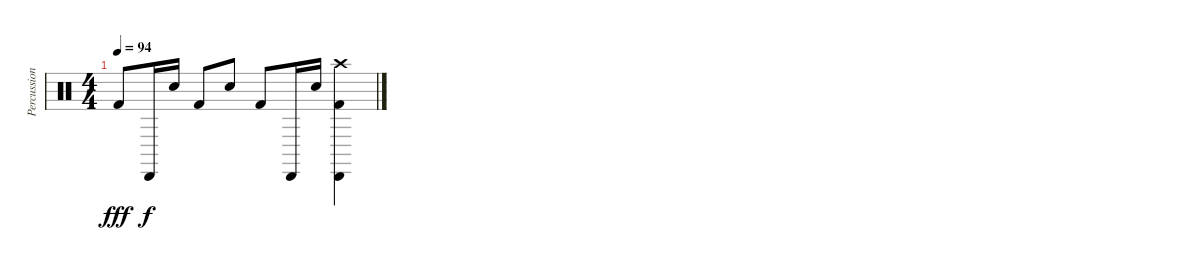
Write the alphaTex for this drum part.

\track ("Percussions" "Percussion") {instrument percussion}
\staff {score}
\articulation defaults
\ts (4 4)
\tempo 94
\clef neutral
\ks c "Kick (hit) 2".8{dy fff} "Cabasa (hit)".16{dy f} "Electric Snare (hit)".16 "Kick (hit) 2".8 "Electric Snare (hit)".8 "Kick (hit) 2".8 "Cabasa (hit)".16 "Electric Snare (hit)".16
("Crash high (hit)" "Cabasa (hit)" "Kick (hit) 2").4
